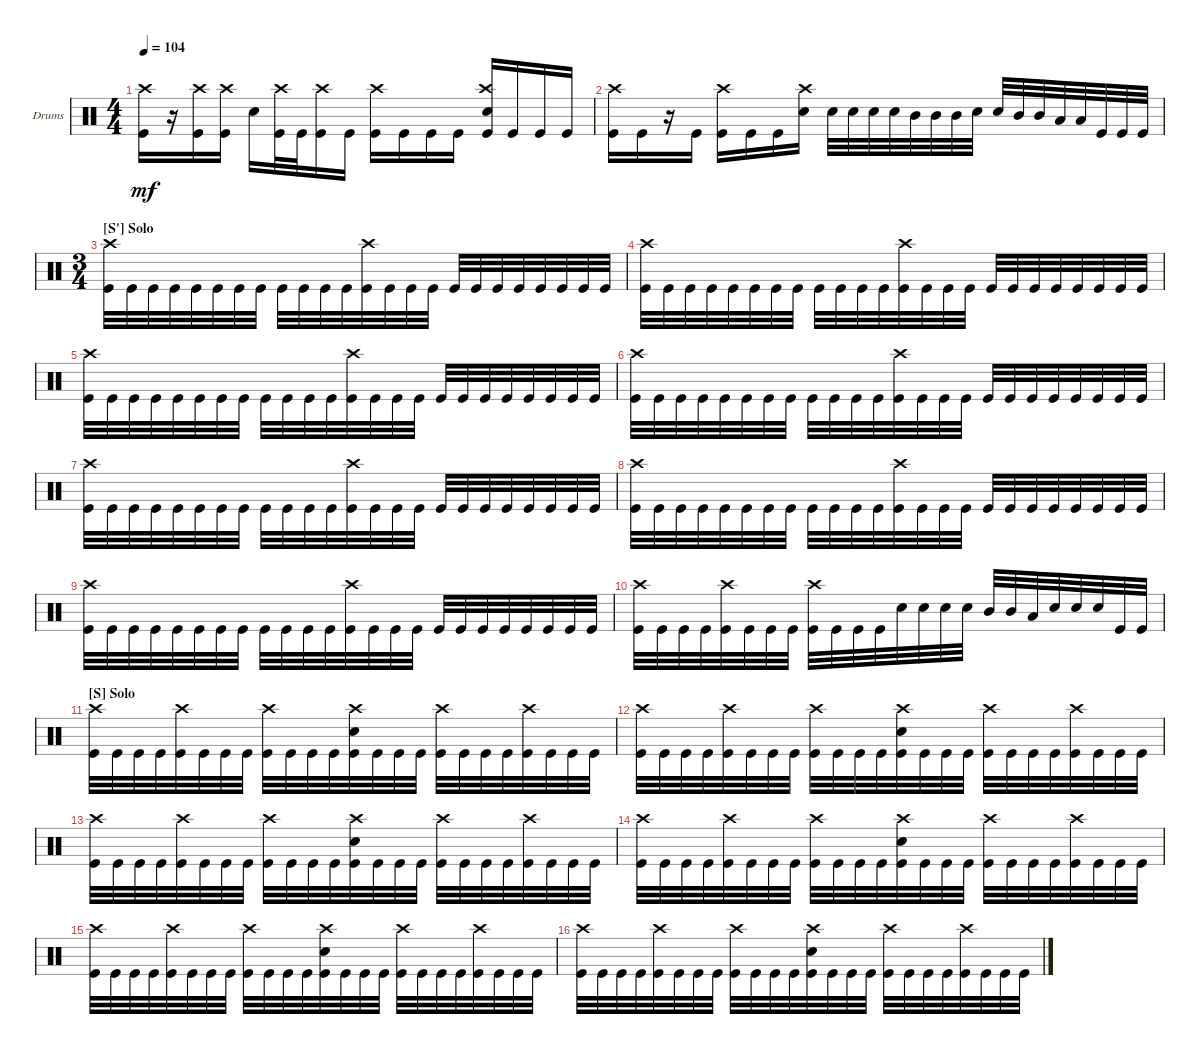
\bracketExtendMode groupsimilarinstruments
\firstSystemTrackNameOrientation horizontal
\otherSystemsTrackNameOrientation horizontal
\track ("Drumkit" "Drums") {instrument percussion}
\staff {score}
\articulation defaults
\ts (4 4)
\tempo 104
\clef neutral
\ks c
("Kick (hit)" "Crash high (hit)").16{dy mf} r.16 ("Kick (hit)" "Crash high (hit)").16 ("Kick (hit)" "Crash high (hit)").16 "Snare (hit) 2".16 ("Kick (hit)" "Crash high (hit)").32 "Kick (hit)".32 ("Kick (hit)" "Crash high (hit)").16 "Kick (hit)".16 ("Kick (hit)" "Crash high (hit)").16 "Kick (hit)".16 "Kick (hit)".16 "Kick (hit)".16 ("Snare (hit) 2" "Kick (hit)" "Crash high (hit)").16 "Kick (hit)".16 "Kick (hit)".16 "Kick (hit)".16 |
("Kick (hit)" "Crash high (hit)").16 "Kick (hit)".16 r.16 "Kick (hit)".16 ("Kick (hit)" "Crash high (hit)").16 "Kick (hit)".16 "Kick (hit)".16 ("Crash high (hit)" "Snare (hit) 2").16 "Snare (hit) 2".32 "Snare (hit) 2".32 "Snare (hit) 2".32 "Snare (hit) 2".32 "Mid Tom (hit)".32 "Mid Tom (hit)".32 "Mid Tom (hit)".32 "Snare (hit) 2".32 "Snare (hit) 2".32 "Mid Tom (hit)".32 "Mid Tom (hit)".32 "Low Tom (hit)".32 "Low Tom (hit)".32 "Kick (hit)".32 "Kick (hit)".32 "Kick (hit)".32 |
\ts (3 4)
\section ("S'" "Solo")
("Kick (hit)" "Crash high (hit)").32 "Kick (hit)".32 "Kick (hit)".32 "Kick (hit)".32 "Kick (hit)".32 "Kick (hit)".32 "Kick (hit)".32 "Kick (hit)".32 "Kick (hit)".32 "Kick (hit)".32 "Kick (hit)".32 "Kick (hit)".32 ("Kick (hit)" "Crash high (hit)").32 "Kick (hit)".32 "Kick (hit)".32 "Kick (hit)".32 "Kick (hit)".32 "Kick (hit)".32 "Kick (hit)".32 "Kick (hit)".32 "Kick (hit)".32 "Kick (hit)".32 "Kick (hit)".32 "Kick (hit)".32 |
("Kick (hit)" "Crash high (hit)").32 "Kick (hit)".32 "Kick (hit)".32 "Kick (hit)".32 "Kick (hit)".32 "Kick (hit)".32 "Kick (hit)".32 "Kick (hit)".32 "Kick (hit)".32 "Kick (hit)".32 "Kick (hit)".32 "Kick (hit)".32 ("Kick (hit)" "Crash high (hit)").32 "Kick (hit)".32 "Kick (hit)".32 "Kick (hit)".32 "Kick (hit)".32 "Kick (hit)".32 "Kick (hit)".32 "Kick (hit)".32 "Kick (hit)".32 "Kick (hit)".32 "Kick (hit)".32 "Kick (hit)".32 |
("Kick (hit)" "Crash high (hit)").32 "Kick (hit)".32 "Kick (hit)".32 "Kick (hit)".32 "Kick (hit)".32 "Kick (hit)".32 "Kick (hit)".32 "Kick (hit)".32 "Kick (hit)".32 "Kick (hit)".32 "Kick (hit)".32 "Kick (hit)".32 ("Kick (hit)" "Crash high (hit)").32 "Kick (hit)".32 "Kick (hit)".32 "Kick (hit)".32 "Kick (hit)".32 "Kick (hit)".32 "Kick (hit)".32 "Kick (hit)".32 "Kick (hit)".32 "Kick (hit)".32 "Kick (hit)".32 "Kick (hit)".32 |
("Kick (hit)" "Crash high (hit)").32 "Kick (hit)".32 "Kick (hit)".32 "Kick (hit)".32 "Kick (hit)".32 "Kick (hit)".32 "Kick (hit)".32 "Kick (hit)".32 "Kick (hit)".32 "Kick (hit)".32 "Kick (hit)".32 "Kick (hit)".32 ("Kick (hit)" "Crash high (hit)").32 "Kick (hit)".32 "Kick (hit)".32 "Kick (hit)".32 "Kick (hit)".32 "Kick (hit)".32 "Kick (hit)".32 "Kick (hit)".32 "Kick (hit)".32 "Kick (hit)".32 "Kick (hit)".32 "Kick (hit)".32 |
("Kick (hit)" "Crash high (hit)").32 "Kick (hit)".32 "Kick (hit)".32 "Kick (hit)".32 "Kick (hit)".32 "Kick (hit)".32 "Kick (hit)".32 "Kick (hit)".32 "Kick (hit)".32 "Kick (hit)".32 "Kick (hit)".32 "Kick (hit)".32 ("Kick (hit)" "Crash high (hit)").32 "Kick (hit)".32 "Kick (hit)".32 "Kick (hit)".32 "Kick (hit)".32 "Kick (hit)".32 "Kick (hit)".32 "Kick (hit)".32 "Kick (hit)".32 "Kick (hit)".32 "Kick (hit)".32 "Kick (hit)".32 |
("Kick (hit)" "Crash high (hit)").32 "Kick (hit)".32 "Kick (hit)".32 "Kick (hit)".32 "Kick (hit)".32 "Kick (hit)".32 "Kick (hit)".32 "Kick (hit)".32 "Kick (hit)".32 "Kick (hit)".32 "Kick (hit)".32 "Kick (hit)".32 ("Kick (hit)" "Crash high (hit)").32 "Kick (hit)".32 "Kick (hit)".32 "Kick (hit)".32 "Kick (hit)".32 "Kick (hit)".32 "Kick (hit)".32 "Kick (hit)".32 "Kick (hit)".32 "Kick (hit)".32 "Kick (hit)".32 "Kick (hit)".32 |
("Kick (hit)" "Crash high (hit)").32 "Kick (hit)".32 "Kick (hit)".32 "Kick (hit)".32 "Kick (hit)".32 "Kick (hit)".32 "Kick (hit)".32 "Kick (hit)".32 "Kick (hit)".32 "Kick (hit)".32 "Kick (hit)".32 "Kick (hit)".32 ("Kick (hit)" "Crash high (hit)").32 "Kick (hit)".32 "Kick (hit)".32 "Kick (hit)".32 "Kick (hit)".32 "Kick (hit)".32 "Kick (hit)".32 "Kick (hit)".32 "Kick (hit)".32 "Kick (hit)".32 "Kick (hit)".32 "Kick (hit)".32 |
("Kick (hit)" "Crash high (hit)").32 "Kick (hit)".32 "Kick (hit)".32 "Kick (hit)".32 ("Kick (hit)" "Crash high (hit)").32 "Kick (hit)".32 "Kick (hit)".32 "Kick (hit)".32 ("Kick (hit)" "Crash high (hit)").32 "Kick (hit)".32 "Kick (hit)".32 "Kick (hit)".32 "Snare (hit) 2".32 "Snare (hit) 2".32 "Snare (hit) 2".32 "Snare (hit) 2".32 "Mid Tom (hit)".32 "Mid Tom (hit)".32 "Low Tom (hit)".32 "Snare (hit) 2".32 "Snare (hit) 2".32 "Snare (hit) 2".32 "Kick (hit)".32 "Kick (hit)".32 |
\section ("S" "Solo")
("Kick (hit)" "Crash high (hit)").32 "Kick (hit)".32 "Kick (hit)".32 "Kick (hit)".32 ("Kick (hit)" "Crash high (hit)").32 "Kick (hit)".32 "Kick (hit)".32 "Kick (hit)".32 ("Kick (hit)" "Crash high (hit)").32 "Kick (hit)".32 "Kick (hit)".32 "Kick (hit)".32 ("Kick (hit)" "Crash high (hit)" "Snare (hit) 2").32 "Kick (hit)".32 "Kick (hit)".32 "Kick (hit)".32 ("Kick (hit)" "Crash high (hit)").32 "Kick (hit)".32 "Kick (hit)".32 "Kick (hit)".32 ("Kick (hit)" "Crash high (hit)").32 "Kick (hit)".32 "Kick (hit)".32 "Kick (hit)".32 |
("Kick (hit)" "Crash high (hit)").32 "Kick (hit)".32 "Kick (hit)".32 "Kick (hit)".32 ("Kick (hit)" "Crash high (hit)").32 "Kick (hit)".32 "Kick (hit)".32 "Kick (hit)".32 ("Kick (hit)" "Crash high (hit)").32 "Kick (hit)".32 "Kick (hit)".32 "Kick (hit)".32 ("Kick (hit)" "Crash high (hit)" "Snare (hit) 2").32 "Kick (hit)".32 "Kick (hit)".32 "Kick (hit)".32 ("Kick (hit)" "Crash high (hit)").32 "Kick (hit)".32 "Kick (hit)".32 "Kick (hit)".32 ("Kick (hit)" "Crash high (hit)").32 "Kick (hit)".32 "Kick (hit)".32 "Kick (hit)".32 |
("Kick (hit)" "Crash high (hit)").32 "Kick (hit)".32 "Kick (hit)".32 "Kick (hit)".32 ("Kick (hit)" "Crash high (hit)").32 "Kick (hit)".32 "Kick (hit)".32 "Kick (hit)".32 ("Kick (hit)" "Crash high (hit)").32 "Kick (hit)".32 "Kick (hit)".32 "Kick (hit)".32 ("Kick (hit)" "Crash high (hit)" "Snare (hit) 2").32 "Kick (hit)".32 "Kick (hit)".32 "Kick (hit)".32 ("Kick (hit)" "Crash high (hit)").32 "Kick (hit)".32 "Kick (hit)".32 "Kick (hit)".32 ("Kick (hit)" "Crash high (hit)").32 "Kick (hit)".32 "Kick (hit)".32 "Kick (hit)".32 |
("Kick (hit)" "Crash high (hit)").32 "Kick (hit)".32 "Kick (hit)".32 "Kick (hit)".32 ("Kick (hit)" "Crash high (hit)").32 "Kick (hit)".32 "Kick (hit)".32 "Kick (hit)".32 ("Kick (hit)" "Crash high (hit)").32 "Kick (hit)".32 "Kick (hit)".32 "Kick (hit)".32 ("Kick (hit)" "Crash high (hit)" "Snare (hit) 2").32 "Kick (hit)".32 "Kick (hit)".32 "Kick (hit)".32 ("Kick (hit)" "Crash high (hit)").32 "Kick (hit)".32 "Kick (hit)".32 "Kick (hit)".32 ("Kick (hit)" "Crash high (hit)").32 "Kick (hit)".32 "Kick (hit)".32 "Kick (hit)".32 |
("Kick (hit)" "Crash high (hit)").32 "Kick (hit)".32 "Kick (hit)".32 "Kick (hit)".32 ("Kick (hit)" "Crash high (hit)").32 "Kick (hit)".32 "Kick (hit)".32 "Kick (hit)".32 ("Kick (hit)" "Crash high (hit)").32 "Kick (hit)".32 "Kick (hit)".32 "Kick (hit)".32 ("Kick (hit)" "Crash high (hit)" "Snare (hit) 2").32 "Kick (hit)".32 "Kick (hit)".32 "Kick (hit)".32 ("Kick (hit)" "Crash high (hit)").32 "Kick (hit)".32 "Kick (hit)".32 "Kick (hit)".32 ("Kick (hit)" "Crash high (hit)").32 "Kick (hit)".32 "Kick (hit)".32 "Kick (hit)".32 |
("Kick (hit)" "Crash high (hit)").32 "Kick (hit)".32 "Kick (hit)".32 "Kick (hit)".32 ("Kick (hit)" "Crash high (hit)").32 "Kick (hit)".32 "Kick (hit)".32 "Kick (hit)".32 ("Kick (hit)" "Crash high (hit)").32 "Kick (hit)".32 "Kick (hit)".32 "Kick (hit)".32 ("Kick (hit)" "Crash high (hit)" "Snare (hit) 2").32 "Kick (hit)".32 "Kick (hit)".32 "Kick (hit)".32 ("Kick (hit)" "Crash high (hit)").32 "Kick (hit)".32 "Kick (hit)".32 "Kick (hit)".32 ("Kick (hit)" "Crash high (hit)").32 "Kick (hit)".32 "Kick (hit)".32 "Kick (hit)".32
